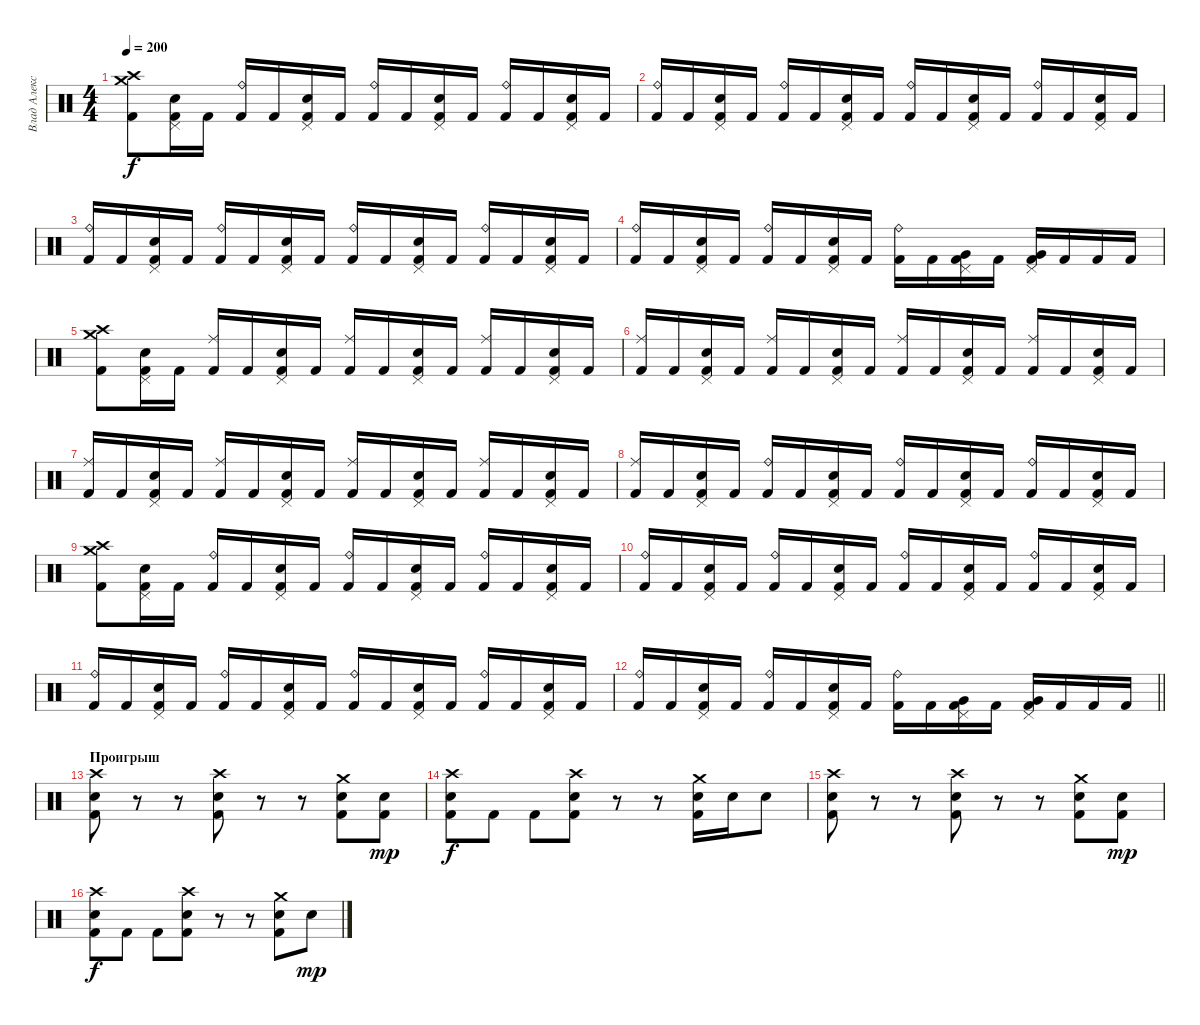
\track ("Влад Алексеенко" "Влад Алекс") {instrument percussion}
\staff {score}
\articulation defaults
\ts (4 4)
\tempo 200
\clef neutral
\ks c
("Crash high (hit)" "Crash medium (hit)" "Kick (hit) 2").8{dy f} ("Kick (hit) 2" "Electric Snare (hit)" "Pedal Hi-Hat (hit)").16 "Kick (hit) 2".16 ("Kick (hit) 2" "Ride (bell)").16 "Kick (hit) 2".16 ("Kick (hit) 2" "Electric Snare (hit)" "Pedal Hi-Hat (hit)").16 "Kick (hit) 2".16 ("Kick (hit) 2" "Ride (bell)").16 "Kick (hit) 2".16 ("Kick (hit) 2" "Electric Snare (hit)" "Pedal Hi-Hat (hit)").16 "Kick (hit) 2".16 ("Kick (hit) 2" "Ride (bell)").16 "Kick (hit) 2".16 ("Kick (hit) 2" "Electric Snare (hit)" "Pedal Hi-Hat (hit)").16 "Kick (hit) 2".16 |
("Kick (hit) 2" "Ride (bell)").16 "Kick (hit) 2".16 ("Kick (hit) 2" "Electric Snare (hit)" "Pedal Hi-Hat (hit)").16 "Kick (hit) 2".16 ("Kick (hit) 2" "Ride (bell)").16 "Kick (hit) 2".16 ("Kick (hit) 2" "Electric Snare (hit)" "Pedal Hi-Hat (hit)").16 "Kick (hit) 2".16 ("Kick (hit) 2" "Ride (bell)").16 "Kick (hit) 2".16 ("Kick (hit) 2" "Electric Snare (hit)" "Pedal Hi-Hat (hit)").16 "Kick (hit) 2".16 ("Kick (hit) 2" "Ride (bell)").16 "Kick (hit) 2".16 ("Kick (hit) 2" "Electric Snare (hit)" "Pedal Hi-Hat (hit)").16 "Kick (hit) 2".16 |
("Kick (hit) 2" "Ride (bell)").16 "Kick (hit) 2".16 ("Kick (hit) 2" "Electric Snare (hit)" "Pedal Hi-Hat (hit)").16 "Kick (hit) 2".16 ("Kick (hit) 2" "Ride (bell)").16 "Kick (hit) 2".16 ("Kick (hit) 2" "Electric Snare (hit)" "Pedal Hi-Hat (hit)").16 "Kick (hit) 2".16 ("Kick (hit) 2" "Ride (bell)").16 "Kick (hit) 2".16 ("Kick (hit) 2" "Electric Snare (hit)" "Pedal Hi-Hat (hit)").16 "Kick (hit) 2".16 ("Kick (hit) 2" "Ride (bell)").16 "Kick (hit) 2".16 ("Kick (hit) 2" "Electric Snare (hit)" "Pedal Hi-Hat (hit)").16 "Kick (hit) 2".16 |
("Kick (hit) 2" "Ride (bell)").16 "Kick (hit) 2".16 ("Kick (hit) 2" "Electric Snare (hit)" "Pedal Hi-Hat (hit)").16 "Kick (hit) 2".16 ("Kick (hit) 2" "Ride (bell)").16 "Kick (hit) 2".16 ("Kick (hit) 2" "Electric Snare (hit)" "Pedal Hi-Hat (hit)").16 "Kick (hit) 2".16 ("Kick (hit) 2" "Ride (bell)").16 "Kick (hit) 2".16 ("Kick (hit) 2" "Pedal Hi-Hat (hit)" "Very Low Tom (hit)").16 "Kick (hit) 2".16 ("Kick (hit) 2" "Pedal Hi-Hat (hit)" "Very Low Tom (hit)").16 "Kick (hit) 2".16 "Kick (hit) 2".16 "Kick (hit) 2".16 |
("Crash high (hit)" "Crash medium (hit)" "Kick (hit) 2").8 ("Kick (hit) 2" "Electric Snare (hit)" "Pedal Hi-Hat (hit)").16 "Kick (hit) 2".16 ("Kick (hit) 2" "Ride (middle)").16 "Kick (hit) 2".16 ("Kick (hit) 2" "Electric Snare (hit)" "Pedal Hi-Hat (hit)").16 "Kick (hit) 2".16 ("Kick (hit) 2" "Ride (middle)").16 "Kick (hit) 2".16 ("Kick (hit) 2" "Electric Snare (hit)" "Pedal Hi-Hat (hit)").16 "Kick (hit) 2".16 ("Kick (hit) 2" "Ride (middle)").16 "Kick (hit) 2".16 ("Kick (hit) 2" "Electric Snare (hit)" "Pedal Hi-Hat (hit)").16 "Kick (hit) 2".16 |
("Kick (hit) 2" "Ride (middle)").16 "Kick (hit) 2".16 ("Kick (hit) 2" "Electric Snare (hit)" "Pedal Hi-Hat (hit)").16 "Kick (hit) 2".16 ("Kick (hit) 2" "Ride (middle)").16 "Kick (hit) 2".16 ("Kick (hit) 2" "Electric Snare (hit)" "Pedal Hi-Hat (hit)").16 "Kick (hit) 2".16 ("Kick (hit) 2" "Ride (middle)").16 "Kick (hit) 2".16 ("Kick (hit) 2" "Electric Snare (hit)" "Pedal Hi-Hat (hit)").16 "Kick (hit) 2".16 ("Kick (hit) 2" "Ride (middle)").16 "Kick (hit) 2".16 ("Kick (hit) 2" "Electric Snare (hit)" "Pedal Hi-Hat (hit)").16 "Kick (hit) 2".16 |
("Kick (hit) 2" "Ride (middle)").16 "Kick (hit) 2".16 ("Kick (hit) 2" "Electric Snare (hit)" "Pedal Hi-Hat (hit)").16 "Kick (hit) 2".16 ("Kick (hit) 2" "Ride (middle)").16 "Kick (hit) 2".16 ("Kick (hit) 2" "Electric Snare (hit)" "Pedal Hi-Hat (hit)").16 "Kick (hit) 2".16 ("Kick (hit) 2" "Ride (middle)").16 "Kick (hit) 2".16 ("Kick (hit) 2" "Electric Snare (hit)" "Pedal Hi-Hat (hit)").16 "Kick (hit) 2".16 ("Kick (hit) 2" "Ride (middle)").16 "Kick (hit) 2".16 ("Kick (hit) 2" "Electric Snare (hit)" "Pedal Hi-Hat (hit)").16 "Kick (hit) 2".16 |
("Kick (hit) 2" "Ride (middle)").16 "Kick (hit) 2".16 ("Kick (hit) 2" "Electric Snare (hit)" "Pedal Hi-Hat (hit)").16 "Kick (hit) 2".16 ("Kick (hit) 2" "Ride (bell)").16 "Kick (hit) 2".16 ("Kick (hit) 2" "Electric Snare (hit)" "Pedal Hi-Hat (hit)").16 "Kick (hit) 2".16 ("Kick (hit) 2" "Ride (bell)").16 "Kick (hit) 2".16 ("Kick (hit) 2" "Electric Snare (hit)" "Pedal Hi-Hat (hit)").16 "Kick (hit) 2".16 ("Kick (hit) 2" "Ride (bell)").16 "Kick (hit) 2".16 ("Kick (hit) 2" "Electric Snare (hit)" "Pedal Hi-Hat (hit)").16 "Kick (hit) 2".16 |
("Crash high (hit)" "Crash medium (hit)" "Kick (hit) 2").8 ("Kick (hit) 2" "Electric Snare (hit)" "Pedal Hi-Hat (hit)").16 "Kick (hit) 2".16 ("Kick (hit) 2" "Ride (bell)").16 "Kick (hit) 2".16 ("Kick (hit) 2" "Electric Snare (hit)" "Pedal Hi-Hat (hit)").16 "Kick (hit) 2".16 ("Kick (hit) 2" "Ride (bell)").16 "Kick (hit) 2".16 ("Kick (hit) 2" "Electric Snare (hit)" "Pedal Hi-Hat (hit)").16 "Kick (hit) 2".16 ("Kick (hit) 2" "Ride (bell)").16 "Kick (hit) 2".16 ("Kick (hit) 2" "Electric Snare (hit)" "Pedal Hi-Hat (hit)").16 "Kick (hit) 2".16 |
("Kick (hit) 2" "Ride (bell)").16 "Kick (hit) 2".16 ("Kick (hit) 2" "Electric Snare (hit)" "Pedal Hi-Hat (hit)").16 "Kick (hit) 2".16 ("Kick (hit) 2" "Ride (bell)").16 "Kick (hit) 2".16 ("Kick (hit) 2" "Electric Snare (hit)" "Pedal Hi-Hat (hit)").16 "Kick (hit) 2".16 ("Kick (hit) 2" "Ride (bell)").16 "Kick (hit) 2".16 ("Kick (hit) 2" "Electric Snare (hit)" "Pedal Hi-Hat (hit)").16 "Kick (hit) 2".16 ("Kick (hit) 2" "Ride (bell)").16 "Kick (hit) 2".16 ("Kick (hit) 2" "Electric Snare (hit)" "Pedal Hi-Hat (hit)").16 "Kick (hit) 2".16 |
("Kick (hit) 2" "Ride (bell)").16 "Kick (hit) 2".16 ("Kick (hit) 2" "Electric Snare (hit)" "Pedal Hi-Hat (hit)").16 "Kick (hit) 2".16 ("Kick (hit) 2" "Ride (bell)").16 "Kick (hit) 2".16 ("Kick (hit) 2" "Electric Snare (hit)" "Pedal Hi-Hat (hit)").16 "Kick (hit) 2".16 ("Kick (hit) 2" "Ride (bell)").16 "Kick (hit) 2".16 ("Kick (hit) 2" "Electric Snare (hit)" "Pedal Hi-Hat (hit)").16 "Kick (hit) 2".16 ("Kick (hit) 2" "Ride (bell)").16 "Kick (hit) 2".16 ("Kick (hit) 2" "Electric Snare (hit)" "Pedal Hi-Hat (hit)").16 "Kick (hit) 2".16 |
\barLineRight lightlight
("Kick (hit) 2" "Ride (bell)").16 "Kick (hit) 2".16 ("Kick (hit) 2" "Electric Snare (hit)" "Pedal Hi-Hat (hit)").16 "Kick (hit) 2".16 ("Kick (hit) 2" "Ride (bell)").16 "Kick (hit) 2".16 ("Kick (hit) 2" "Electric Snare (hit)" "Pedal Hi-Hat (hit)").16 "Kick (hit) 2".16 ("Kick (hit) 2" "Ride (bell)").16 "Kick (hit) 2".16 ("Kick (hit) 2" "Pedal Hi-Hat (hit)" "Very Low Tom (hit)").16 "Kick (hit) 2".16 ("Kick (hit) 2" "Pedal Hi-Hat (hit)" "Very Low Tom (hit)").16 "Kick (hit) 2".16 "Kick (hit) 2".16 "Kick (hit) 2".16 |
\section ("" "Проигрыш")
("Crash high (hit)" "Electric Snare (hit)" "Kick (hit) 2").8 r.8 r.8 ("Electric Snare (hit)" "Crash high (hit)" "Kick (hit) 2").8 r.8 r.8 ("Electric Snare (hit)" "Crash medium (hit)" "Kick (hit) 2").8 ("Electric Snare (hit)" "Kick (hit) 2").8{dy mp} |
("Crash high (hit)" "Electric Snare (hit)" "Kick (hit) 2").8{dy f} "Kick (hit) 2".8 "Kick (hit) 2".8 ("Electric Snare (hit)" "Crash high (hit)" "Kick (hit) 2").8 r.8 r.8 ("Electric Snare (hit)" "Crash medium (hit)" "Kick (hit) 2").16 "Electric Snare (hit)".16 "Electric Snare (hit)".8 |
("Crash high (hit)" "Electric Snare (hit)" "Kick (hit) 2").8 r.8 r.8 ("Electric Snare (hit)" "Crash high (hit)" "Kick (hit) 2").8 r.8 r.8 ("Electric Snare (hit)" "Crash medium (hit)" "Kick (hit) 2").8 ("Electric Snare (hit)" "Kick (hit) 2").8{dy mp} |
("Crash high (hit)" "Electric Snare (hit)" "Kick (hit) 2").8{dy f} "Kick (hit) 2".8 "Kick (hit) 2".8 ("Electric Snare (hit)" "Crash high (hit)" "Kick (hit) 2").8 r.8 r.8 ("Electric Snare (hit)" "Crash medium (hit)" "Kick (hit) 2").8 "Electric Snare (hit)".8{dy mp}
